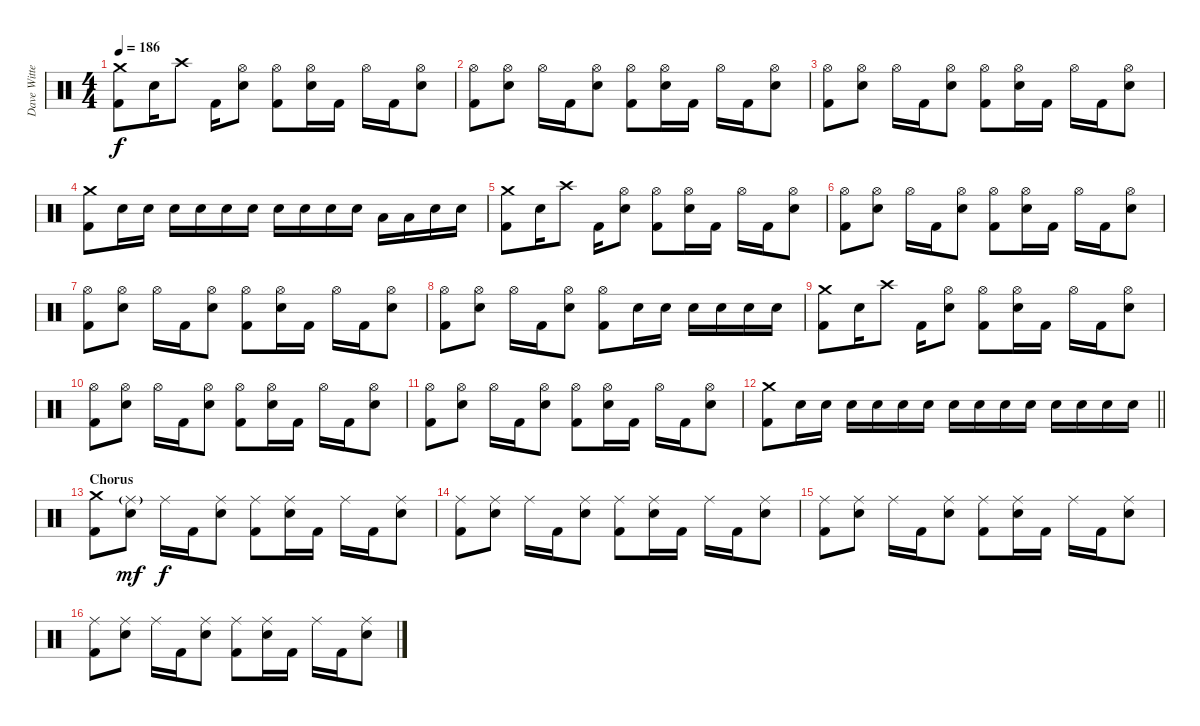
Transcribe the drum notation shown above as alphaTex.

\track ("Dave Witte" "Dave Witte") {instrument percussion}
\staff {score}
\articulation defaults
\ts (4 4)
\tempo 186
\clef neutral
\ks c
("Crash medium (hit)" "Kick (hit) 2").8{dy f} "Electric Snare (hit)".16 "Crash high (hit)".8 "Kick (hit) 2".16 ("Hi-Hat (open)" "Electric Snare (hit)").8 ("Hi-Hat (open)" "Kick (hit) 2").8 ("Hi-Hat (open)" "Electric Snare (hit)").16 "Kick (hit) 2".16 "Hi-Hat (open)".16 "Kick (hit) 2".16 ("Hi-Hat (open)" "Electric Snare (hit)").8 |
("Hi-Hat (open)" "Kick (hit) 2").8 ("Hi-Hat (open)" "Electric Snare (hit)").8 "Hi-Hat (open)".16 "Kick (hit) 2".16 ("Hi-Hat (open)" "Electric Snare (hit)").8 ("Hi-Hat (open)" "Kick (hit) 2").8 ("Hi-Hat (open)" "Electric Snare (hit)").16 "Kick (hit) 2".16 "Hi-Hat (open)".16 "Kick (hit) 2".16 ("Hi-Hat (open)" "Electric Snare (hit)").8 |
("Hi-Hat (open)" "Kick (hit) 2").8 ("Hi-Hat (open)" "Electric Snare (hit)").8 "Hi-Hat (open)".16 "Kick (hit) 2".16 ("Hi-Hat (open)" "Electric Snare (hit)").8 ("Hi-Hat (open)" "Kick (hit) 2").8 ("Hi-Hat (open)" "Electric Snare (hit)").16 "Kick (hit) 2".16 "Hi-Hat (open)".16 "Kick (hit) 2".16 ("Hi-Hat (open)" "Electric Snare (hit)").8 |
("Crash medium (hit)" "Kick (hit) 2").8 "Electric Snare (hit)".16 "Electric Snare (hit)".16 "Electric Snare (hit)".16 "Electric Snare (hit)".16 "Electric Snare (hit)".16 "Electric Snare (hit)".16 "Electric Snare (hit)".16 "Electric Snare (hit)".16 "Electric Snare (hit)".16 "Electric Snare (hit)".16 "Low Tom (hit)".16 "Low Tom (hit)".16 "Electric Snare (hit)".16 "Electric Snare (hit)".16 |
("Crash medium (hit)" "Kick (hit) 2").8 "Electric Snare (hit)".16 "Crash high (hit)".8 "Kick (hit) 2".16 ("Hi-Hat (open)" "Electric Snare (hit)").8 ("Hi-Hat (open)" "Kick (hit) 2").8 ("Hi-Hat (open)" "Electric Snare (hit)").16 "Kick (hit) 2".16 "Hi-Hat (open)".16 "Kick (hit) 2".16 ("Hi-Hat (open)" "Electric Snare (hit)").8 |
("Hi-Hat (open)" "Kick (hit) 2").8 ("Hi-Hat (open)" "Electric Snare (hit)").8 "Hi-Hat (open)".16 "Kick (hit) 2".16 ("Hi-Hat (open)" "Electric Snare (hit)").8 ("Hi-Hat (open)" "Kick (hit) 2").8 ("Hi-Hat (open)" "Electric Snare (hit)").16 "Kick (hit) 2".16 "Hi-Hat (open)".16 "Kick (hit) 2".16 ("Hi-Hat (open)" "Electric Snare (hit)").8 |
("Hi-Hat (open)" "Kick (hit) 2").8 ("Hi-Hat (open)" "Electric Snare (hit)").8 "Hi-Hat (open)".16 "Kick (hit) 2".16 ("Hi-Hat (open)" "Electric Snare (hit)").8 ("Hi-Hat (open)" "Kick (hit) 2").8 ("Hi-Hat (open)" "Electric Snare (hit)").16 "Kick (hit) 2".16 "Hi-Hat (open)".16 "Kick (hit) 2".16 ("Hi-Hat (open)" "Electric Snare (hit)").8 |
("Hi-Hat (open)" "Kick (hit) 2").8 ("Hi-Hat (open)" "Electric Snare (hit)").8 "Hi-Hat (open)".16 "Kick (hit) 2".16 ("Hi-Hat (open)" "Electric Snare (hit)").8 ("Hi-Hat (open)" "Kick (hit) 2").8 "Electric Snare (hit)".16 "Electric Snare (hit)".16 "Electric Snare (hit)".16 "Electric Snare (hit)".16 "Electric Snare (hit)".16 "Electric Snare (hit)".16 |
("Crash medium (hit)" "Kick (hit) 2").8 "Electric Snare (hit)".16 "Crash high (hit)".8 "Kick (hit) 2".16 ("Hi-Hat (open)" "Electric Snare (hit)").8 ("Hi-Hat (open)" "Kick (hit) 2").8 ("Hi-Hat (open)" "Electric Snare (hit)").16 "Kick (hit) 2".16 "Hi-Hat (open)".16 "Kick (hit) 2".16 ("Hi-Hat (open)" "Electric Snare (hit)").8 |
("Hi-Hat (open)" "Kick (hit) 2").8 ("Hi-Hat (open)" "Electric Snare (hit)").8 "Hi-Hat (open)".16 "Kick (hit) 2".16 ("Hi-Hat (open)" "Electric Snare (hit)").8 ("Hi-Hat (open)" "Kick (hit) 2").8 ("Hi-Hat (open)" "Electric Snare (hit)").16 "Kick (hit) 2".16 "Hi-Hat (open)".16 "Kick (hit) 2".16 ("Hi-Hat (open)" "Electric Snare (hit)").8 |
("Hi-Hat (open)" "Kick (hit) 2").8 ("Hi-Hat (open)" "Electric Snare (hit)").8 "Hi-Hat (open)".16 "Kick (hit) 2".16 ("Hi-Hat (open)" "Electric Snare (hit)").8 ("Hi-Hat (open)" "Kick (hit) 2").8 ("Hi-Hat (open)" "Electric Snare (hit)").16 "Kick (hit) 2".16 "Hi-Hat (open)".16 "Kick (hit) 2".16 ("Hi-Hat (open)" "Electric Snare (hit)").8 |
\barLineRight lightlight
("Crash medium (hit)" "Kick (hit) 2").8 "Electric Snare (hit)".16 "Electric Snare (hit)".16 "Electric Snare (hit)".16 "Electric Snare (hit)".16 "Electric Snare (hit)".16 "Electric Snare (hit)".16 "Electric Snare (hit)".16 "Electric Snare (hit)".16 "Electric Snare (hit)".16 "Electric Snare (hit)".16 "Electric Snare (hit)".16 "Electric Snare (hit)".16 "Electric Snare (hit)".16 "Electric Snare (hit)".16 |
\section ("" "Chorus")
("Crash medium (hit)" "Kick (hit) 2").8 ("Ride (middle)"{g} "Electric Snare (hit)").8{dy mf} "Ride (middle)".16{dy f} "Kick (hit) 2".16 ("Ride (middle)" "Electric Snare (hit)").8 ("Ride (middle)" "Kick (hit) 2").8 ("Ride (middle)" "Electric Snare (hit)").16 "Kick (hit) 2".16 "Ride (middle)".16 "Kick (hit) 2".16 ("Ride (middle)" "Electric Snare (hit)").8 |
("Ride (middle)" "Kick (hit) 2").8 ("Ride (middle)" "Electric Snare (hit)").8 "Ride (middle)".16 "Kick (hit) 2".16 ("Ride (middle)" "Electric Snare (hit)").8 ("Ride (middle)" "Kick (hit) 2").8 ("Ride (middle)" "Electric Snare (hit)").16 "Kick (hit) 2".16 "Ride (middle)".16 "Kick (hit) 2".16 ("Ride (middle)" "Electric Snare (hit)").8 |
("Ride (middle)" "Kick (hit) 2").8 ("Ride (middle)" "Electric Snare (hit)").8 "Ride (middle)".16 "Kick (hit) 2".16 ("Ride (middle)" "Electric Snare (hit)").8 ("Ride (middle)" "Kick (hit) 2").8 ("Ride (middle)" "Electric Snare (hit)").16 "Kick (hit) 2".16 "Ride (middle)".16 "Kick (hit) 2".16 ("Ride (middle)" "Electric Snare (hit)").8 |
("Ride (middle)" "Kick (hit) 2").8 ("Ride (middle)" "Electric Snare (hit)").8 "Ride (middle)".16 "Kick (hit) 2".16 ("Ride (middle)" "Electric Snare (hit)").8 ("Ride (middle)" "Kick (hit) 2").8 ("Ride (middle)" "Electric Snare (hit)").16 "Kick (hit) 2".16 "Ride (middle)".16 "Kick (hit) 2".16 ("Ride (middle)" "Electric Snare (hit)").8
